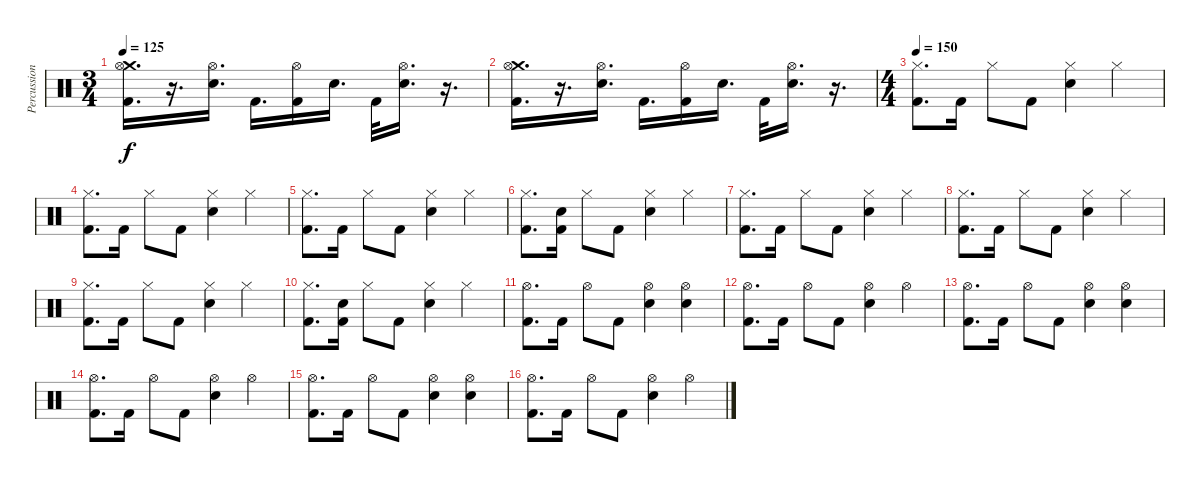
\track ("Percussion" "Percussion") {instrument percussion}
\staff {score}
\articulation defaults
\ts (3 4)
\tempo 125
\clef neutral
\ks c
("Crash medium (hit)" "Hi-Hat (open)" "Kick (hit) 2").16{d dy f} r.16{d} ("Hi-Hat (open)" "Electric Snare (hit)").16{d} "Kick (hit) 2".16{d} ("Hi-Hat (open)" "Kick (hit) 2").16 "Electric Snare (hit)".16{d} "Kick (hit) 2".32 ("Hi-Hat (open)" "Electric Snare (hit)").16{d} r.16{d} |
("Crash medium (hit)" "Hi-Hat (open)" "Kick (hit) 2").16{d} r.16{d} ("Hi-Hat (open)" "Electric Snare (hit)").16{d} "Kick (hit) 2".16{d} ("Hi-Hat (open)" "Kick (hit) 2").16 "Electric Snare (hit)".16{d} "Kick (hit) 2".32 ("Hi-Hat (open)" "Electric Snare (hit)").16{d} r.16{d} |
\ts (4 4)
\tempo 150
("Hi-Hat (closed)" "Kick (hit) 2").8{d} "Kick (hit) 2".16 "Hi-Hat (closed)".8 "Kick (hit) 2".8 ("Hi-Hat (closed)" "Electric Snare (hit)").4 "Hi-Hat (closed)".4 |
("Hi-Hat (closed)" "Kick (hit) 2").8{d} "Kick (hit) 2".16 "Hi-Hat (closed)".8 "Kick (hit) 2".8 ("Hi-Hat (closed)" "Electric Snare (hit)").4 "Hi-Hat (closed)".4 |
("Hi-Hat (closed)" "Kick (hit) 2").8{d} "Kick (hit) 2".16 "Hi-Hat (closed)".8 "Kick (hit) 2".8 ("Hi-Hat (closed)" "Electric Snare (hit)").4 "Hi-Hat (closed)".4 |
("Hi-Hat (closed)" "Kick (hit) 2").8{d} ("Electric Snare (hit)" "Kick (hit) 2").16 "Hi-Hat (closed)".8 "Kick (hit) 2".8 ("Hi-Hat (closed)" "Electric Snare (hit)").4 "Hi-Hat (closed)".4 |
("Hi-Hat (closed)" "Kick (hit) 2").8{d} "Kick (hit) 2".16 "Hi-Hat (closed)".8 "Kick (hit) 2".8 ("Hi-Hat (closed)" "Electric Snare (hit)").4 "Hi-Hat (closed)".4 |
("Hi-Hat (closed)" "Kick (hit) 2").8{d} "Kick (hit) 2".16 "Hi-Hat (closed)".8 "Kick (hit) 2".8 ("Hi-Hat (closed)" "Electric Snare (hit)").4 "Hi-Hat (closed)".4 |
("Hi-Hat (closed)" "Kick (hit) 2").8{d} "Kick (hit) 2".16 "Hi-Hat (closed)".8 "Kick (hit) 2".8 ("Hi-Hat (closed)" "Electric Snare (hit)").4 "Hi-Hat (closed)".4 |
("Hi-Hat (closed)" "Kick (hit) 2").8{d} ("Electric Snare (hit)" "Kick (hit) 2").16 "Hi-Hat (closed)".8 "Kick (hit) 2".8 ("Hi-Hat (closed)" "Electric Snare (hit)").4 "Hi-Hat (closed)".4 |
("Hi-Hat (open)" "Kick (hit) 2").8{d} "Kick (hit) 2".16 "Hi-Hat (open)".8 "Kick (hit) 2".8 ("Hi-Hat (open)" "Electric Snare (hit)").4 ("Hi-Hat (open)" "Electric Snare (hit)").4 |
("Hi-Hat (open)" "Kick (hit) 2").8{d} "Kick (hit) 2".16 "Hi-Hat (open)".8 "Kick (hit) 2".8 ("Hi-Hat (open)" "Electric Snare (hit)").4 "Hi-Hat (open)".4 |
("Hi-Hat (open)" "Kick (hit) 2").8{d} "Kick (hit) 2".16 "Hi-Hat (open)".8 "Kick (hit) 2".8 ("Hi-Hat (open)" "Electric Snare (hit)").4 ("Hi-Hat (open)" "Electric Snare (hit)").4 |
("Hi-Hat (open)" "Kick (hit) 2").8{d} "Kick (hit) 2".16 "Hi-Hat (open)".8 "Kick (hit) 2".8 ("Hi-Hat (open)" "Electric Snare (hit)").4 "Hi-Hat (open)".4 |
("Hi-Hat (open)" "Kick (hit) 2").8{d} "Kick (hit) 2".16 "Hi-Hat (open)".8 "Kick (hit) 2".8 ("Hi-Hat (open)" "Electric Snare (hit)").4 ("Hi-Hat (open)" "Electric Snare (hit)").4 |
("Hi-Hat (open)" "Kick (hit) 2").8{d} "Kick (hit) 2".16 "Hi-Hat (open)".8 "Kick (hit) 2".8 ("Hi-Hat (open)" "Electric Snare (hit)").4 "Hi-Hat (open)".4
